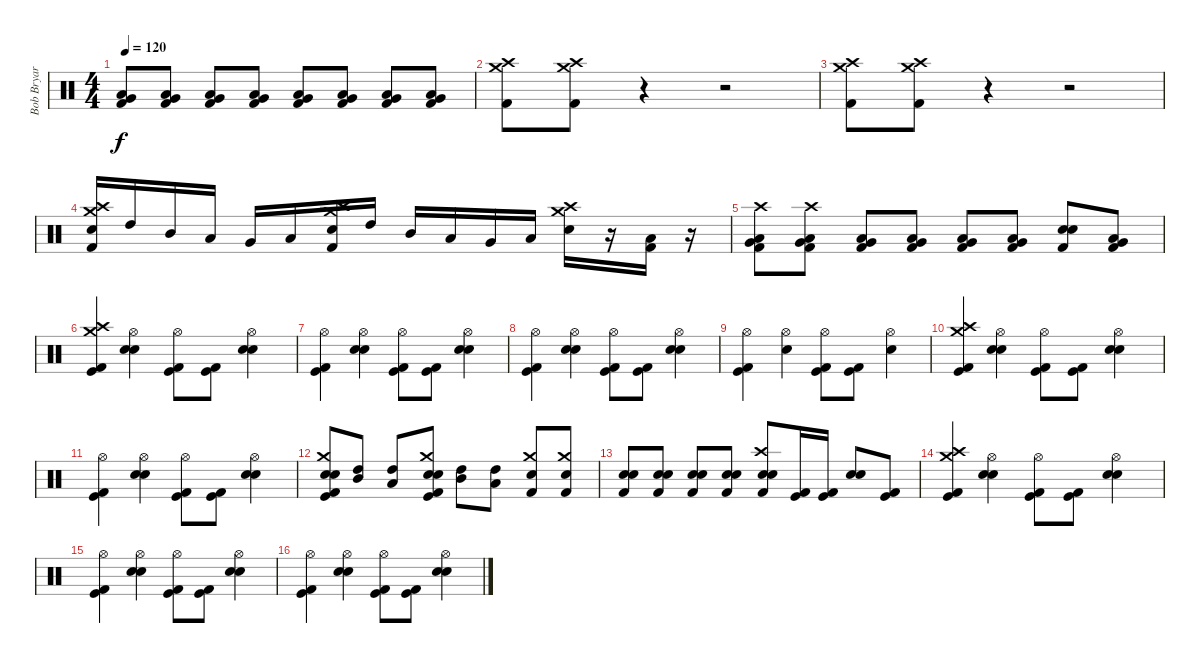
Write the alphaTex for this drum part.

\track ("Bob Bryar" "Bob Bryar") {instrument percussion}
\staff {score}
\articulation defaults
\ts (4 4)
\tempo 120
\clef neutral
\ks c
("Very Low Tom (hit)" "Low Tom (hit)" "Kick (hit) 2").8{dy f volume 10} ("Very Low Tom (hit)" "Low Tom (hit)" "Kick (hit) 2").8{volume 11} ("Very Low Tom (hit)" "Low Tom (hit)" "Kick (hit) 2").8{volume 12} ("Very Low Tom (hit)" "Low Tom (hit)" "Kick (hit) 2").8{volume 13} ("Very Low Tom (hit)" "Low Tom (hit)" "Kick (hit) 2").8 ("Very Low Tom (hit)" "Low Tom (hit)" "Kick (hit) 2").8 ("Very Low Tom (hit)" "Low Tom (hit)" "Kick (hit) 2").8 ("Very Low Tom (hit)" "Low Tom (hit)" "Kick (hit) 2").8 |
("Crash high (hit)" "Crash medium (hit)" "Kick (hit) 2").8 ("Crash high (hit)" "Crash medium (hit)" "Kick (hit) 2").8 r.4 r.2 |
("Crash high (hit)" "Crash medium (hit)" "Kick (hit) 2").8 ("Crash high (hit)" "Crash medium (hit)" "Kick (hit) 2").8 r.4 r.2 |
("Crash high (hit)" "Crash medium (hit)" "Snare (hit) 2" "Kick (hit) 2").16 "High Tom (hit)".16 "Mid Tom (hit)".16 "Low Tom (hit)".16 "Very Low Tom (hit)".16 "Low Floor Tom (hit)".16 ("Crash high (hit)" "Crash medium (hit)" "Snare (hit) 2" "Kick (hit) 2").16 "High Tom (hit)".16 "Mid Tom (hit)".16 "Low Tom (hit)".16 "Very Low Tom (hit)".16 "Low Floor Tom (hit)".16 ("Crash high (hit)" "Crash medium (hit)" "Snare (hit) 2").16 r.16 ("Low Tom (hit)" "Kick (hit) 2").16 r.16 |
("Crash high (hit)" "Very Low Tom (hit)" "Low Tom (hit)" "Kick (hit) 2").8 ("Crash high (hit)" "Very Low Tom (hit)" "Low Tom (hit)" "Kick (hit) 2").8 ("Very Low Tom (hit)" "Low Tom (hit)" "Kick (hit) 2").8 ("Very Low Tom (hit)" "Low Tom (hit)" "Kick (hit) 2").8 ("Very Low Tom (hit)" "Low Tom (hit)" "Kick (hit) 2").8 ("Very Low Tom (hit)" "Low Tom (hit)" "Kick (hit) 2").8 ("Electric Snare (hit)" "Snare (hit) 2" "Kick (hit) 2").8 ("Very Low Tom (hit)" "Low Tom (hit)" "Kick (hit) 2").8 |
("Crash medium (hit)" "Crash high (hit)" "Kick (hit)" "Kick (hit) 2").4 ("Hi-Hat (open)" "Electric Snare (hit)" "Snare (hit) 2").4 ("Hi-Hat (open)" "Kick (hit)" "Kick (hit) 2").8 ("Kick (hit)" "Kick (hit) 2").8 ("Hi-Hat (open)" "Electric Snare (hit)" "Snare (hit) 2").4 |
("Hi-Hat (open)" "Kick (hit)" "Kick (hit) 2").4 ("Hi-Hat (open)" "Electric Snare (hit)" "Snare (hit) 2").4 ("Hi-Hat (open)" "Kick (hit)" "Kick (hit) 2").8 ("Kick (hit)" "Kick (hit) 2").8 ("Hi-Hat (open)" "Electric Snare (hit)" "Snare (hit) 2").4 |
("Hi-Hat (open)" "Kick (hit)" "Kick (hit) 2").4 ("Hi-Hat (open)" "Electric Snare (hit)" "Snare (hit) 2").4 ("Hi-Hat (open)" "Kick (hit)" "Kick (hit) 2").8 ("Kick (hit)" "Kick (hit) 2").8 ("Hi-Hat (open)" "Electric Snare (hit)" "Snare (hit) 2").4 |
("Hi-Hat (open)" "Kick (hit)" "Kick (hit) 2").4 ("Hi-Hat (open)" "Snare (hit) 2").4 ("Hi-Hat (open)" "Kick (hit)" "Kick (hit) 2").8 ("Kick (hit)" "Kick (hit) 2").8 ("Hi-Hat (open)" "Snare (hit) 2").4 |
("Crash medium (hit)" "Crash high (hit)" "Kick (hit)" "Kick (hit) 2").4 ("Hi-Hat (open)" "Electric Snare (hit)" "Snare (hit) 2").4 ("Hi-Hat (open)" "Kick (hit)" "Kick (hit) 2").8 ("Kick (hit)" "Kick (hit) 2").8 ("Hi-Hat (open)" "Electric Snare (hit)" "Snare (hit) 2").4 |
("Hi-Hat (open)" "Kick (hit)" "Kick (hit) 2").4 ("Hi-Hat (open)" "Electric Snare (hit)" "Snare (hit) 2").4 ("Hi-Hat (open)" "Kick (hit)" "Kick (hit) 2").8 ("Kick (hit)" "Kick (hit) 2").8 ("Hi-Hat (open)" "Electric Snare (hit)" "Snare (hit) 2").4 |
("Crash medium (hit)" "Electric Snare (hit)" "Snare (hit) 2" "Kick (hit)" "Kick (hit) 2").8 ("Mid Tom (hit)" "High Tom (hit)").8 ("High Tom (hit)" "Low Tom (hit)").8 ("Crash medium (hit)" "Electric Snare (hit)" "Snare (hit) 2" "Kick (hit)" "Kick (hit) 2").8 ("Mid Tom (hit)" "High Tom (hit)").8 ("High Tom (hit)" "Low Tom (hit)").8 ("Crash medium (hit)" "Snare (hit) 2" "Kick (hit) 2").8 ("Crash medium (hit)" "Snare (hit) 2" "Kick (hit) 2").8 |
("Snare (hit) 2" "Electric Snare (hit)" "Kick (hit) 2").8 ("Snare (hit) 2" "Electric Snare (hit)" "Kick (hit) 2").8 ("Snare (hit) 2" "Electric Snare (hit)" "Kick (hit) 2").8 ("Snare (hit) 2" "Electric Snare (hit)" "Kick (hit) 2").8 ("Crash high (hit)" "Snare (hit) 2" "Electric Snare (hit)" "Kick (hit) 2").8 ("Kick (hit)" "Kick (hit) 2").16 ("Kick (hit)" "Kick (hit) 2").16 ("Snare (hit) 2" "Electric Snare (hit)").8 ("Kick (hit)" "Kick (hit) 2").8 |
("Crash medium (hit)" "Crash high (hit)" "Kick (hit)" "Kick (hit) 2").4 ("Hi-Hat (open)" "Electric Snare (hit)" "Snare (hit) 2").4 ("Hi-Hat (open)" "Kick (hit)" "Kick (hit) 2").8 ("Kick (hit)" "Kick (hit) 2").8 ("Hi-Hat (open)" "Electric Snare (hit)" "Snare (hit) 2").4 |
("Hi-Hat (open)" "Kick (hit)" "Kick (hit) 2").4 ("Hi-Hat (open)" "Electric Snare (hit)" "Snare (hit) 2").4 ("Hi-Hat (open)" "Kick (hit)" "Kick (hit) 2").8 ("Kick (hit)" "Kick (hit) 2").8 ("Hi-Hat (open)" "Electric Snare (hit)" "Snare (hit) 2").4 |
("Hi-Hat (open)" "Kick (hit)" "Kick (hit) 2").4 ("Hi-Hat (open)" "Electric Snare (hit)" "Snare (hit) 2").4 ("Hi-Hat (open)" "Kick (hit)" "Kick (hit) 2").8 ("Kick (hit)" "Kick (hit) 2").8 ("Hi-Hat (open)" "Electric Snare (hit)" "Snare (hit) 2").4
